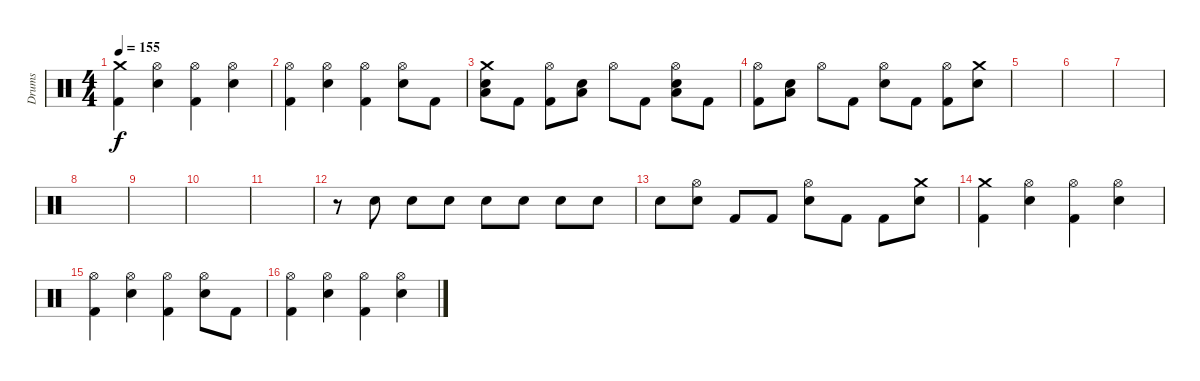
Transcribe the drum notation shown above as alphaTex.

\track ("Drums" "Drums") {instrument percussion}
\staff {score}
\articulation defaults
\ts (4 4)
\tempo 155
\clef neutral
\ks c
("Crash medium (hit)" "Kick (hit) 2").4{dy f} ("Hi-Hat (open)" "Snare (hit) 2").4 ("Hi-Hat (open)" "Kick (hit) 2").4 ("Hi-Hat (open)" "Snare (hit) 2").4 |
("Hi-Hat (open)" "Kick (hit) 2").4 ("Hi-Hat (open)" "Snare (hit) 2").4 ("Hi-Hat (open)" "Kick (hit) 2").4 ("Hi-Hat (open)" "Snare (hit) 2").8 "Kick (hit) 2".8 |
("Crash medium (hit)" "Snare (hit) 2" "Low Floor Tom (hit)").8 "Kick (hit) 2".8 ("Hi-Hat (open)" "Kick (hit) 2").8 ("Snare (hit) 2" "Low Floor Tom (hit)").8 "Hi-Hat (open)".8 "Kick (hit) 2".8 ("Hi-Hat (open)" "Snare (hit) 2" "Low Floor Tom (hit)").8 "Kick (hit) 2".8 |
("Hi-Hat (open)" "Kick (hit) 2").8 ("Snare (hit) 2" "Low Floor Tom (hit)").8 "Hi-Hat (open)".8 "Kick (hit) 2".8 ("Hi-Hat (open)" "Snare (hit) 2").8 "Kick (hit) 2".8 ("Hi-Hat (open)" "Kick (hit) 2").8 ("Crash medium (hit)" "Snare (hit) 2").8 |
|
|
|
|
|
|
|
r.8 "Snare (hit) 2".8 "Snare (hit) 2".8 "Snare (hit) 2".8 "Snare (hit) 2".8 "Snare (hit) 2".8 "Snare (hit) 2".8 "Snare (hit) 2".8 |
"Snare (hit) 2".8 ("Hi-Hat (open)" "Snare (hit) 2").8 "Kick (hit) 2".8 "Kick (hit) 2".8 ("Hi-Hat (open)" "Snare (hit) 2").8 "Kick (hit) 2".8 "Kick (hit) 2".8 ("Crash medium (hit)" "Snare (hit) 2").8 |
("Crash medium (hit)" "Kick (hit) 2").4 ("Hi-Hat (open)" "Snare (hit) 2").4 ("Hi-Hat (open)" "Kick (hit) 2").4 ("Hi-Hat (open)" "Snare (hit) 2").4 |
("Hi-Hat (open)" "Kick (hit) 2").4 ("Hi-Hat (open)" "Snare (hit) 2").4 ("Hi-Hat (open)" "Kick (hit) 2").4 ("Hi-Hat (open)" "Snare (hit) 2").8 "Kick (hit) 2".8 |
("Hi-Hat (open)" "Kick (hit) 2").4 ("Hi-Hat (open)" "Snare (hit) 2").4 ("Hi-Hat (open)" "Kick (hit) 2").4 ("Hi-Hat (open)" "Snare (hit) 2").4
